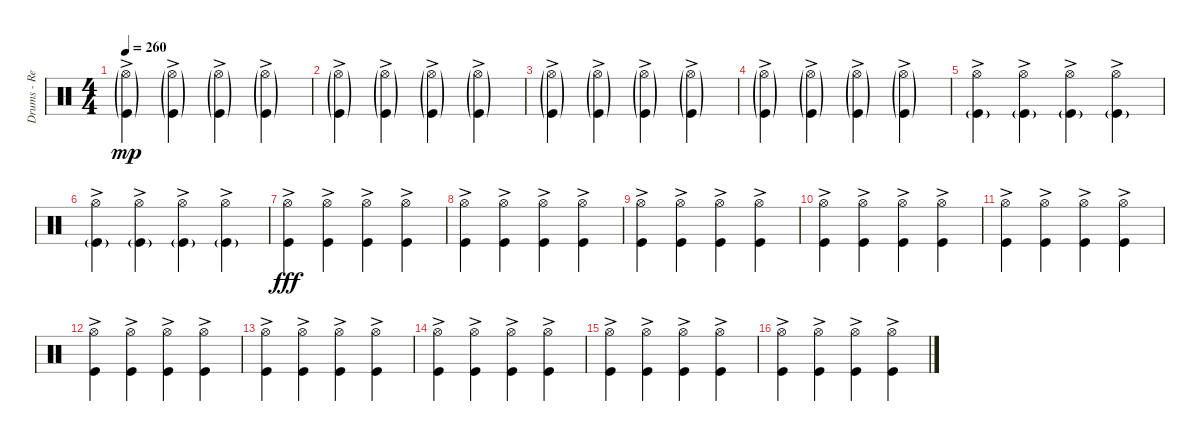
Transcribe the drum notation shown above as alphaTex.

\track ("Drums - Re'a Mochiach" "Drums - Re") {instrument percussion}
\staff {score}
\articulation defaults
\ts (4 4)
\tempo 260
\clef neutral
\ks c
("Hi-Hat (open)"{g ac} "Kick (hit)"{g}).4{dy mp} ("Hi-Hat (open)"{g ac} "Kick (hit)"{g}).4 ("Hi-Hat (open)"{g ac} "Kick (hit)"{g}).4 ("Hi-Hat (open)"{g ac} "Kick (hit)"{g}).4 |
("Hi-Hat (open)"{g ac} "Kick (hit)"{g}).4 ("Hi-Hat (open)"{g ac} "Kick (hit)"{g}).4 ("Hi-Hat (open)"{g ac} "Kick (hit)"{g}).4 ("Hi-Hat (open)"{g ac} "Kick (hit)"{g}).4 |
("Hi-Hat (open)"{g ac} "Kick (hit)"{g}).4 ("Hi-Hat (open)"{g ac} "Kick (hit)"{g}).4 ("Hi-Hat (open)"{g ac} "Kick (hit)"{g}).4 ("Hi-Hat (open)"{g ac} "Kick (hit)"{g}).4 |
("Hi-Hat (open)"{g ac} "Kick (hit)"{g}).4 ("Hi-Hat (open)"{g ac} "Kick (hit)"{g}).4 ("Hi-Hat (open)"{g ac} "Kick (hit)"{g}).4 ("Hi-Hat (open)"{g ac} "Kick (hit)"{g}).4 |
("Hi-Hat (open)"{ac} "Kick (hit)"{g}).4 ("Hi-Hat (open)"{ac} "Kick (hit)"{g}).4 ("Hi-Hat (open)"{ac} "Kick (hit)"{g}).4 ("Hi-Hat (open)"{ac} "Kick (hit)"{g}).4 |
("Hi-Hat (open)"{ac} "Kick (hit)"{g}).4 ("Hi-Hat (open)"{ac} "Kick (hit)"{g}).4 ("Hi-Hat (open)"{ac} "Kick (hit)"{g}).4 ("Hi-Hat (open)"{ac} "Kick (hit)"{g}).4 |
("Hi-Hat (open)"{ac} "Kick (hit)").4{dy fff} ("Hi-Hat (open)"{ac} "Kick (hit)").4 ("Hi-Hat (open)"{ac} "Kick (hit)").4 ("Hi-Hat (open)"{ac} "Kick (hit)").4 |
("Hi-Hat (open)"{ac} "Kick (hit)").4 ("Hi-Hat (open)"{ac} "Kick (hit)").4 ("Hi-Hat (open)"{ac} "Kick (hit)").4 ("Hi-Hat (open)"{ac} "Kick (hit)").4 |
("Hi-Hat (open)"{ac} "Kick (hit)"{ac}).4 ("Hi-Hat (open)"{ac} "Kick (hit)"{ac}).4 ("Hi-Hat (open)"{ac} "Kick (hit)"{ac}).4 ("Hi-Hat (open)"{ac} "Kick (hit)"{ac}).4 |
("Hi-Hat (open)"{ac} "Kick (hit)"{ac}).4 ("Hi-Hat (open)"{ac} "Kick (hit)"{ac}).4 ("Hi-Hat (open)"{ac} "Kick (hit)"{ac}).4 ("Hi-Hat (open)"{ac} "Kick (hit)"{ac}).4 |
("Hi-Hat (open)"{ac} "Kick (hit)"{ac}).4 ("Hi-Hat (open)"{ac} "Kick (hit)"{ac}).4 ("Hi-Hat (open)"{ac} "Kick (hit)"{ac}).4 ("Hi-Hat (open)"{ac} "Kick (hit)"{ac}).4 |
("Hi-Hat (open)"{ac} "Kick (hit)"{ac}).4 ("Hi-Hat (open)"{ac} "Kick (hit)"{ac}).4 ("Hi-Hat (open)"{ac} "Kick (hit)"{ac}).4 ("Hi-Hat (open)"{ac} "Kick (hit)"{ac}).4 |
("Hi-Hat (open)"{ac} "Kick (hit)"{ac}).4 ("Hi-Hat (open)"{ac} "Kick (hit)"{ac}).4 ("Hi-Hat (open)"{ac} "Kick (hit)"{ac}).4 ("Hi-Hat (open)"{ac} "Kick (hit)"{ac}).4 |
("Hi-Hat (open)"{ac} "Kick (hit)"{ac}).4 ("Hi-Hat (open)"{ac} "Kick (hit)"{ac}).4 ("Hi-Hat (open)"{ac} "Kick (hit)"{ac}).4 ("Hi-Hat (open)"{ac} "Kick (hit)"{ac}).4 |
("Hi-Hat (open)"{ac} "Kick (hit)"{ac}).4 ("Hi-Hat (open)"{ac} "Kick (hit)"{ac}).4 ("Hi-Hat (open)"{ac} "Kick (hit)"{ac}).4 ("Hi-Hat (open)"{ac} "Kick (hit)"{ac}).4 |
("Hi-Hat (open)"{ac} "Kick (hit)"{ac}).4 ("Hi-Hat (open)"{ac} "Kick (hit)"{ac}).4 ("Hi-Hat (open)"{ac} "Kick (hit)"{ac}).4 ("Hi-Hat (open)"{ac} "Kick (hit)"{ac}).4
